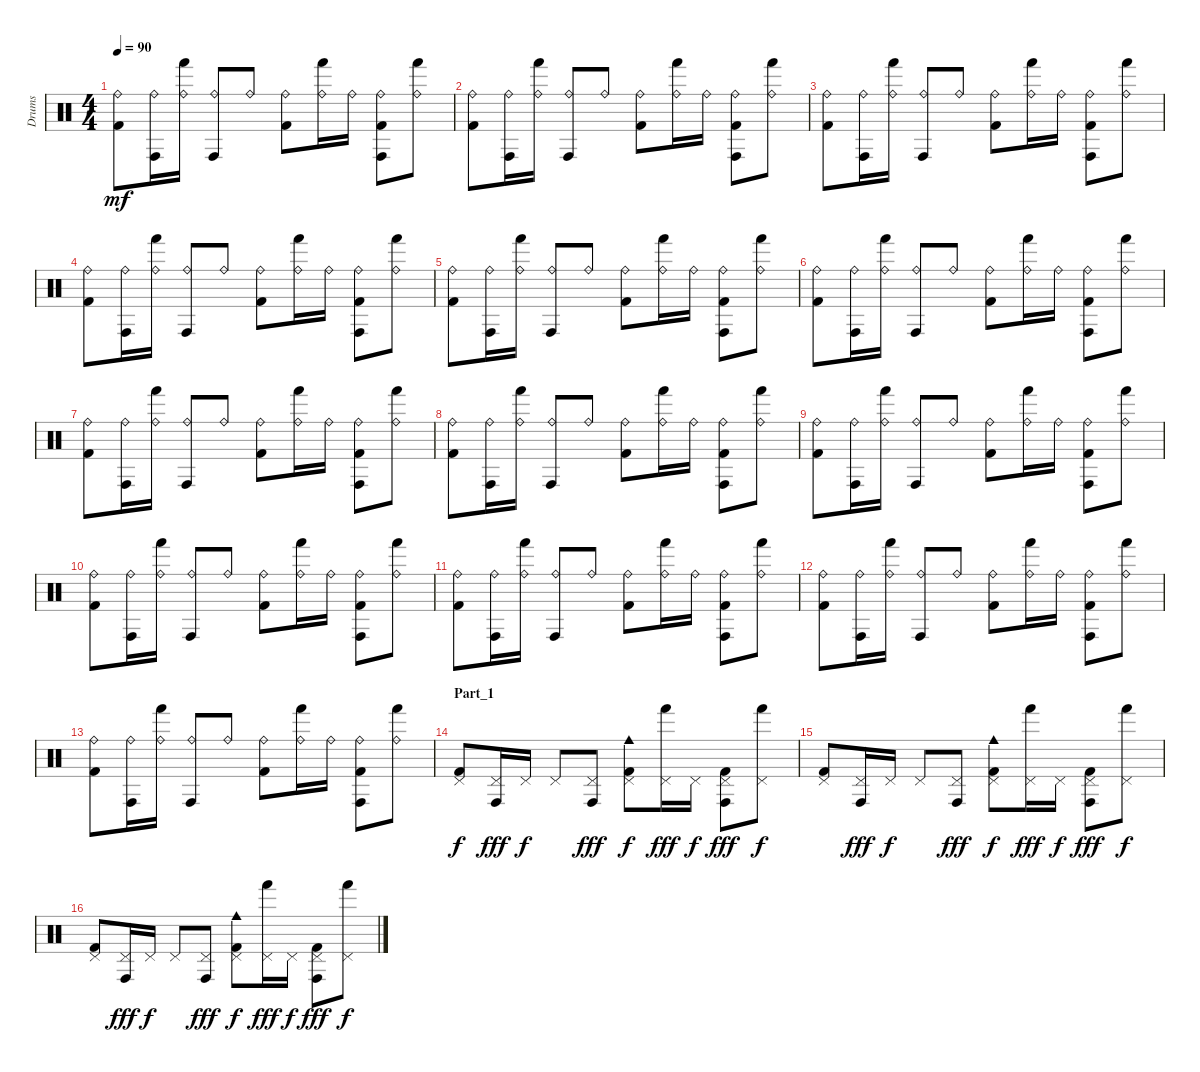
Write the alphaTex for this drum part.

\track (" Drums" " Drums") {instrument percussion}
\staff {score}
\articulation defaults
\ts (4 4)
\tempo 90
\clef neutral
\ks c
("Ride (bell)" "Kick (hit) 2").8{dy mf} ("Ride (bell)" "Conga high (hit)").16 ("Ride (bell)" "Hand (hit)").16 ("Ride (bell)" "Conga high (hit)").8 "Ride (bell)".8 ("Ride (bell)" "Kick (hit) 2").8 ("Ride (bell)" "Hand (hit)").16 "Ride (bell)".16 ("Ride (bell)" "Conga high (hit)" "Kick (hit) 2").8 ("Ride (bell)" "Hand (hit)").8 |
("Ride (bell)" "Kick (hit) 2").8 ("Ride (bell)" "Conga high (hit)").16 ("Ride (bell)" "Hand (hit)").16 ("Ride (bell)" "Conga high (hit)").8 "Ride (bell)".8 ("Ride (bell)" "Kick (hit) 2").8 ("Ride (bell)" "Hand (hit)").16 "Ride (bell)".16 ("Ride (bell)" "Conga high (hit)" "Kick (hit) 2").8 ("Ride (bell)" "Hand (hit)").8 |
("Ride (bell)" "Kick (hit) 2").8 ("Ride (bell)" "Conga high (hit)").16 ("Ride (bell)" "Hand (hit)").16 ("Ride (bell)" "Conga high (hit)").8 "Ride (bell)".8 ("Ride (bell)" "Kick (hit) 2").8 ("Ride (bell)" "Hand (hit)").16 "Ride (bell)".16 ("Ride (bell)" "Conga high (hit)" "Kick (hit) 2").8 ("Ride (bell)" "Hand (hit)").8 |
("Ride (bell)" "Kick (hit) 2").8 ("Ride (bell)" "Conga high (hit)").16 ("Ride (bell)" "Hand (hit)").16 ("Ride (bell)" "Conga high (hit)").8 "Ride (bell)".8 ("Ride (bell)" "Kick (hit) 2").8 ("Ride (bell)" "Hand (hit)").16 "Ride (bell)".16 ("Ride (bell)" "Conga high (hit)" "Kick (hit) 2").8 ("Ride (bell)" "Hand (hit)").8 |
("Ride (bell)" "Kick (hit) 2").8 ("Ride (bell)" "Conga high (hit)").16 ("Ride (bell)" "Hand (hit)").16 ("Ride (bell)" "Conga high (hit)").8 "Ride (bell)".8 ("Ride (bell)" "Kick (hit) 2").8 ("Ride (bell)" "Hand (hit)").16 "Ride (bell)".16 ("Ride (bell)" "Conga high (hit)" "Kick (hit) 2").8 ("Ride (bell)" "Hand (hit)").8 |
("Ride (bell)" "Kick (hit) 2").8 ("Ride (bell)" "Conga high (hit)").16 ("Ride (bell)" "Hand (hit)").16 ("Ride (bell)" "Conga high (hit)").8 "Ride (bell)".8 ("Ride (bell)" "Kick (hit) 2").8 ("Ride (bell)" "Hand (hit)").16 "Ride (bell)".16 ("Ride (bell)" "Conga high (hit)" "Kick (hit) 2").8 ("Ride (bell)" "Hand (hit)").8 |
("Ride (bell)" "Kick (hit) 2").8 ("Ride (bell)" "Conga high (hit)").16 ("Ride (bell)" "Hand (hit)").16 ("Ride (bell)" "Conga high (hit)").8 "Ride (bell)".8 ("Ride (bell)" "Kick (hit) 2").8 ("Ride (bell)" "Hand (hit)").16 "Ride (bell)".16 ("Ride (bell)" "Conga high (hit)" "Kick (hit) 2").8 ("Ride (bell)" "Hand (hit)").8 |
("Ride (bell)" "Kick (hit) 2").8 ("Ride (bell)" "Conga high (hit)").16 ("Ride (bell)" "Hand (hit)").16 ("Ride (bell)" "Conga high (hit)").8 "Ride (bell)".8 ("Ride (bell)" "Kick (hit) 2").8 ("Ride (bell)" "Hand (hit)").16 "Ride (bell)".16 ("Ride (bell)" "Conga high (hit)" "Kick (hit) 2").8 ("Ride (bell)" "Hand (hit)").8 |
("Ride (bell)" "Kick (hit) 2").8 ("Ride (bell)" "Conga high (hit)").16 ("Ride (bell)" "Hand (hit)").16 ("Ride (bell)" "Conga high (hit)").8 "Ride (bell)".8 ("Ride (bell)" "Kick (hit) 2").8 ("Ride (bell)" "Hand (hit)").16 "Ride (bell)".16 ("Ride (bell)" "Conga high (hit)" "Kick (hit) 2").8 ("Ride (bell)" "Hand (hit)").8 |
("Ride (bell)" "Kick (hit) 2").8 ("Ride (bell)" "Conga high (hit)").16 ("Ride (bell)" "Hand (hit)").16 ("Ride (bell)" "Conga high (hit)").8 "Ride (bell)".8 ("Ride (bell)" "Kick (hit) 2").8 ("Ride (bell)" "Hand (hit)").16 "Ride (bell)".16 ("Ride (bell)" "Conga high (hit)" "Kick (hit) 2").8 ("Ride (bell)" "Hand (hit)").8 |
("Ride (bell)" "Kick (hit) 2").8 ("Ride (bell)" "Conga high (hit)").16 ("Ride (bell)" "Hand (hit)").16 ("Ride (bell)" "Conga high (hit)").8 "Ride (bell)".8 ("Ride (bell)" "Kick (hit) 2").8 ("Ride (bell)" "Hand (hit)").16 "Ride (bell)".16 ("Ride (bell)" "Conga high (hit)" "Kick (hit) 2").8 ("Ride (bell)" "Hand (hit)").8 |
("Ride (bell)" "Kick (hit) 2").8 ("Ride (bell)" "Conga high (hit)").16 ("Ride (bell)" "Hand (hit)").16 ("Ride (bell)" "Conga high (hit)").8 "Ride (bell)".8 ("Ride (bell)" "Kick (hit) 2").8 ("Ride (bell)" "Hand (hit)").16 "Ride (bell)".16 ("Ride (bell)" "Conga high (hit)" "Kick (hit) 2").8 ("Ride (bell)" "Hand (hit)").8 |
("Ride (bell)" "Kick (hit) 2").8 ("Ride (bell)" "Conga high (hit)").16 ("Ride (bell)" "Hand (hit)").16 ("Ride (bell)" "Conga high (hit)").8 "Ride (bell)".8 ("Ride (bell)" "Kick (hit) 2").8 ("Ride (bell)" "Hand (hit)").16 "Ride (bell)".16 ("Ride (bell)" "Conga high (hit)" "Kick (hit) 2").8 ("Ride (bell)" "Hand (hit)").8 |
\section ("" "Part_1")
("Pedal Hi-Hat (hit)" "Kick (hit) 2").8{dy f} ("Pedal Hi-Hat (hit)" "Conga high (hit)").16{dy fff} "Pedal Hi-Hat (hit)".16{dy f} "Pedal Hi-Hat (hit)".8 ("Pedal Hi-Hat (hit)" "Conga high (hit)").8{dy fff} ("Pedal Hi-Hat (hit)" "Cowbell medium (hit)" "Kick (hit) 2").8{dy f} ("Pedal Hi-Hat (hit)" "Hand (hit)").16{dy fff} "Pedal Hi-Hat (hit)".16{dy f} ("Pedal Hi-Hat (hit)" "Conga high (hit)" "Kick (hit) 2").8{dy fff} ("Pedal Hi-Hat (hit)" "Hand (hit)").8{dy f} |
("Pedal Hi-Hat (hit)" "Kick (hit) 2").8 ("Pedal Hi-Hat (hit)" "Conga high (hit)").16{dy fff} "Pedal Hi-Hat (hit)".16{dy f} "Pedal Hi-Hat (hit)".8 ("Pedal Hi-Hat (hit)" "Conga high (hit)").8{dy fff} ("Pedal Hi-Hat (hit)" "Cowbell medium (hit)" "Kick (hit) 2").8{dy f} ("Pedal Hi-Hat (hit)" "Hand (hit)").16{dy fff} "Pedal Hi-Hat (hit)".16{dy f} ("Pedal Hi-Hat (hit)" "Conga high (hit)" "Kick (hit) 2").8{dy fff} ("Pedal Hi-Hat (hit)" "Hand (hit)").8{dy f} |
("Pedal Hi-Hat (hit)" "Kick (hit) 2").8 ("Pedal Hi-Hat (hit)" "Conga high (hit)").16{dy fff} "Pedal Hi-Hat (hit)".16{dy f} "Pedal Hi-Hat (hit)".8 ("Pedal Hi-Hat (hit)" "Conga high (hit)").8{dy fff} ("Pedal Hi-Hat (hit)" "Cowbell medium (hit)" "Kick (hit) 2").8{dy f} ("Pedal Hi-Hat (hit)" "Hand (hit)").16{dy fff} "Pedal Hi-Hat (hit)".16{dy f} ("Pedal Hi-Hat (hit)" "Conga high (hit)" "Kick (hit) 2").8{dy fff} ("Pedal Hi-Hat (hit)" "Hand (hit)").8{dy f}
